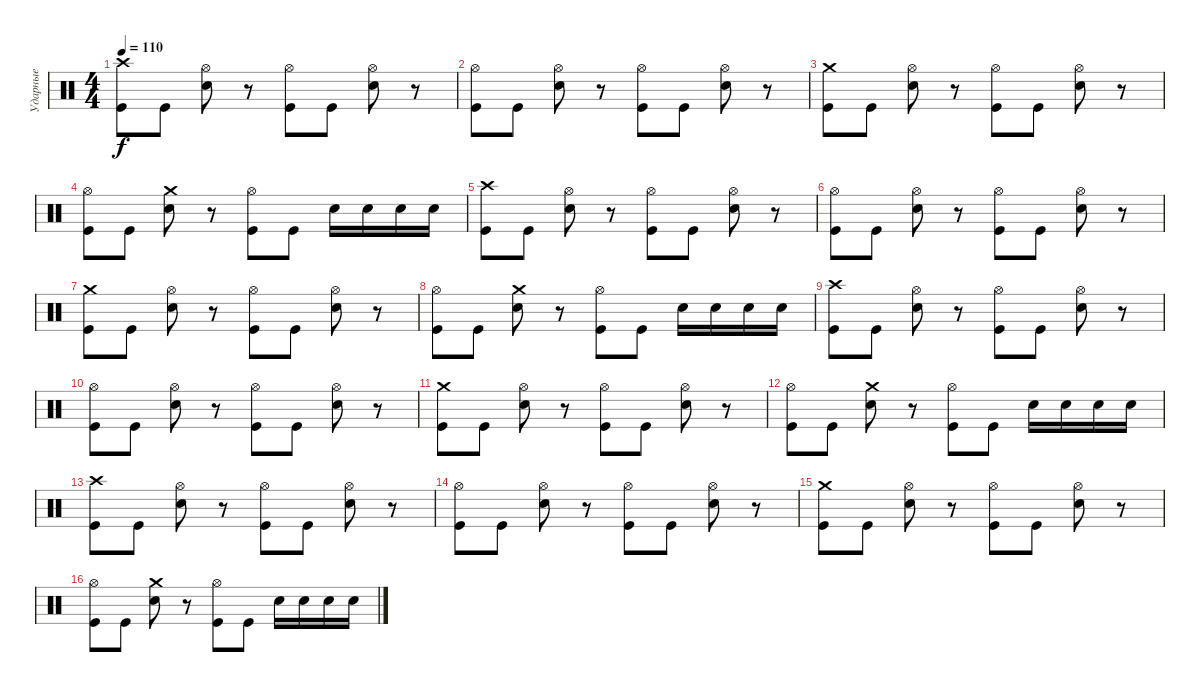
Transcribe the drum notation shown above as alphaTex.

\track ("Ударные" "Ударные") {solo instrument percussion}
\staff {score}
\articulation defaults
\ts (4 4)
\tempo 110
\clef neutral
\ks c
("Kick (hit)" "Crash high (hit)").8{dy f} "Kick (hit)".8 ("Snare (hit) 2" "Hi-Hat (open)").8 r.8 ("Kick (hit)" "Hi-Hat (open)").8 "Kick (hit)".8 ("Snare (hit) 2" "Hi-Hat (open)").8 r.8 |
("Kick (hit)" "Hi-Hat (open)").8 "Kick (hit)".8 ("Snare (hit) 2" "Hi-Hat (open)").8 r.8 ("Kick (hit)" "Hi-Hat (open)").8 "Kick (hit)".8 ("Snare (hit) 2" "Hi-Hat (open)").8 r.8 |
("Kick (hit)" "Crash medium (hit)").8 "Kick (hit)".8 ("Snare (hit) 2" "Hi-Hat (open)").8 r.8 ("Kick (hit)" "Hi-Hat (open)").8 "Kick (hit)".8 ("Snare (hit) 2" "Hi-Hat (open)").8 r.8 |
("Kick (hit)" "Hi-Hat (open)").8 "Kick (hit)".8 ("Snare (hit) 2" "Crash medium (hit)").8 r.8 ("Kick (hit)" "Hi-Hat (open)").8 "Kick (hit)".8 "Snare (hit) 2".16 "Snare (hit) 2".16 "Snare (hit) 2".16 "Snare (hit) 2".16 |
("Kick (hit)" "Crash high (hit)").8 "Kick (hit)".8 ("Snare (hit) 2" "Hi-Hat (open)").8 r.8 ("Kick (hit)" "Hi-Hat (open)").8 "Kick (hit)".8 ("Snare (hit) 2" "Hi-Hat (open)").8 r.8 |
("Kick (hit)" "Hi-Hat (open)").8 "Kick (hit)".8 ("Snare (hit) 2" "Hi-Hat (open)").8 r.8 ("Kick (hit)" "Hi-Hat (open)").8 "Kick (hit)".8 ("Snare (hit) 2" "Hi-Hat (open)").8 r.8 |
("Kick (hit)" "Crash medium (hit)").8 "Kick (hit)".8 ("Snare (hit) 2" "Hi-Hat (open)").8 r.8 ("Kick (hit)" "Hi-Hat (open)").8 "Kick (hit)".8 ("Snare (hit) 2" "Hi-Hat (open)").8 r.8 |
("Kick (hit)" "Hi-Hat (open)").8 "Kick (hit)".8 ("Snare (hit) 2" "Crash medium (hit)").8 r.8 ("Kick (hit)" "Hi-Hat (open)").8 "Kick (hit)".8 "Snare (hit) 2".16 "Snare (hit) 2".16 "Snare (hit) 2".16 "Snare (hit) 2".16 |
("Kick (hit)" "Crash high (hit)").8 "Kick (hit)".8 ("Snare (hit) 2" "Hi-Hat (open)").8 r.8 ("Kick (hit)" "Hi-Hat (open)").8 "Kick (hit)".8 ("Snare (hit) 2" "Hi-Hat (open)").8 r.8 |
("Kick (hit)" "Hi-Hat (open)").8 "Kick (hit)".8 ("Snare (hit) 2" "Hi-Hat (open)").8 r.8 ("Kick (hit)" "Hi-Hat (open)").8 "Kick (hit)".8 ("Snare (hit) 2" "Hi-Hat (open)").8 r.8 |
("Kick (hit)" "Crash medium (hit)").8 "Kick (hit)".8 ("Snare (hit) 2" "Hi-Hat (open)").8 r.8 ("Kick (hit)" "Hi-Hat (open)").8 "Kick (hit)".8 ("Snare (hit) 2" "Hi-Hat (open)").8 r.8 |
("Kick (hit)" "Hi-Hat (open)").8 "Kick (hit)".8 ("Snare (hit) 2" "Crash medium (hit)").8 r.8 ("Kick (hit)" "Hi-Hat (open)").8 "Kick (hit)".8 "Snare (hit) 2".16 "Snare (hit) 2".16 "Snare (hit) 2".16 "Snare (hit) 2".16 |
("Kick (hit)" "Crash high (hit)").8 "Kick (hit)".8 ("Snare (hit) 2" "Hi-Hat (open)").8 r.8 ("Kick (hit)" "Hi-Hat (open)").8 "Kick (hit)".8 ("Snare (hit) 2" "Hi-Hat (open)").8 r.8 |
("Kick (hit)" "Hi-Hat (open)").8 "Kick (hit)".8 ("Snare (hit) 2" "Hi-Hat (open)").8 r.8 ("Kick (hit)" "Hi-Hat (open)").8 "Kick (hit)".8 ("Snare (hit) 2" "Hi-Hat (open)").8 r.8 |
("Kick (hit)" "Crash medium (hit)").8 "Kick (hit)".8 ("Snare (hit) 2" "Hi-Hat (open)").8 r.8 ("Kick (hit)" "Hi-Hat (open)").8 "Kick (hit)".8 ("Snare (hit) 2" "Hi-Hat (open)").8 r.8 |
("Kick (hit)" "Hi-Hat (open)").8 "Kick (hit)".8 ("Snare (hit) 2" "Crash medium (hit)").8 r.8 ("Kick (hit)" "Hi-Hat (open)").8 "Kick (hit)".8 "Snare (hit) 2".16 "Snare (hit) 2".16 "Snare (hit) 2".16 "Snare (hit) 2".16
